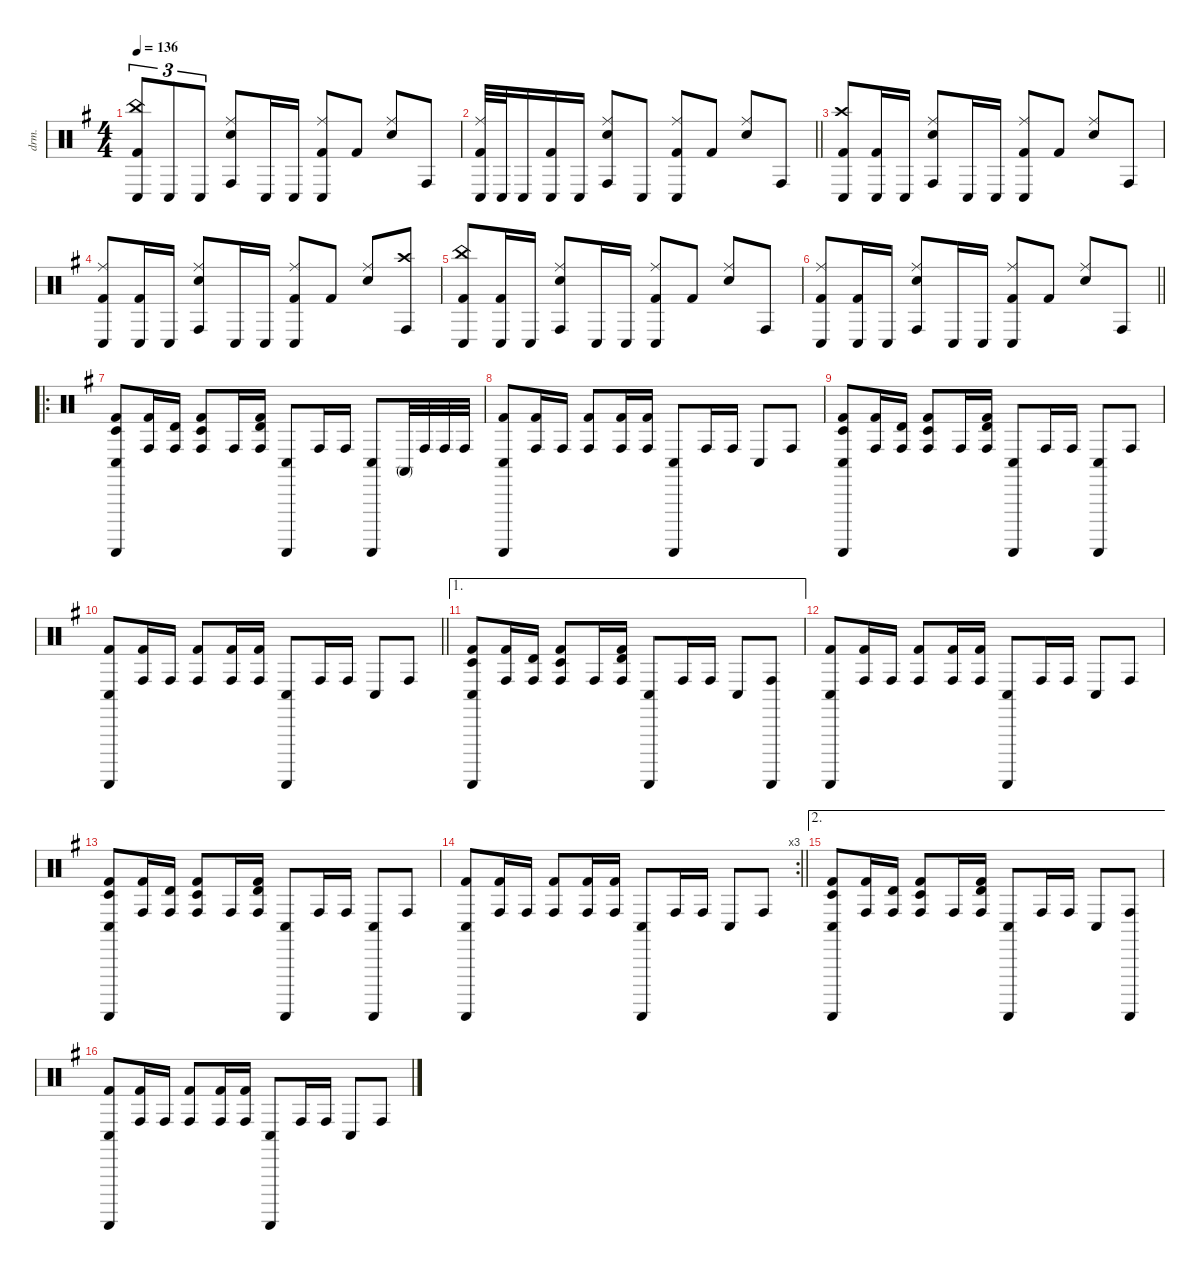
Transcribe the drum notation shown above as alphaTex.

\defaultSystemsLayout 4
\hideDynamics
\bracketExtendMode nobrackets
\otherSystemsTrackNameOrientation horizontal
\track ("Batterie" "drm.") {instrument percussion}
\staff {score}
\articulation defaults
\ts (4 4)
\tempo 136
\clef neutral
\ks g
("China (hit)"{acc forcenatural} "Conga low (hit)"{acc forcenatural} "Kick (hit) 2"{acc forcenatural}).8{tu (3 2) dy f beam Up} "Conga low (hit)"{acc forcenatural}.8{tu (3 2) beam Up} "Conga low (hit)"{acc forcenatural}.8{tu (3 2) beam Up} ("Ride (middle)"{acc forcenatural} "Conga high (hit)"{acc forcenatural} "Snare (hit) 2"{acc forcenatural}).8{beam Up} "Conga low (hit)"{acc forcenatural}.16{beam Up} "Conga low (hit)"{acc forcenatural}.16{beam Up} ("Ride (middle)"{acc forcenatural} "Conga low (hit)"{acc forcenatural} "Kick (hit) 2"{acc forcenatural}).8{beam Up} "Kick (hit) 2"{acc forcenatural}.8{beam Up} ("Ride (middle)"{acc forcenatural} "Snare (hit) 2"{acc forcenatural}).8{beam Up} "Conga high (hit)"{acc forcenatural}.8{beam Up} |
\barLineRight lightlight
("Ride (middle)"{acc forcenatural} "Conga low (hit)"{acc forcenatural} "Kick (hit) 2"{acc forcenatural}).32{beam Up} "Conga low (hit)"{acc forcenatural}.32{beam Up} "Conga low (hit)"{acc forcenatural}.16{beam Up} ("Conga low (hit)"{acc forcenatural} "Kick (hit) 2"{acc forcenatural}).16{beam Up} "Conga low (hit)"{acc forcenatural}.16{beam Up} ("Ride (middle)"{acc forcenatural} "Conga high (hit)"{acc forcenatural} "Snare (hit) 2"{acc forcenatural}).8{beam Up} "Conga low (hit)"{acc forcenatural}.8{beam Up} ("Ride (middle)"{acc forcenatural} "Conga low (hit)"{acc forcenatural} "Kick (hit) 2"{acc forcenatural}).8{beam Up} "Kick (hit) 2"{acc forcenatural}.8{beam Up} ("Ride (middle)"{acc forcenatural} "Snare (hit) 2"{acc forcenatural}).8{beam Up} "Conga high (hit)"{acc forcenatural}.8{beam Up} |
("Crash high (hit)"{acc forcenatural} "Conga low (hit)"{acc forcenatural} "Kick (hit) 2"{acc forcenatural}).8{beam Up} ("Conga low (hit)"{acc forcenatural} "Kick (hit) 2"{acc forcenatural}).16{beam Up} "Conga low (hit)"{acc forcenatural}.16{beam Up} ("Ride (middle)"{acc forcenatural} "Conga high (hit)"{acc forcenatural} "Snare (hit) 2"{acc forcenatural}).8{beam Up} "Conga low (hit)"{acc forcenatural}.16{beam Up} "Conga low (hit)"{acc forcenatural}.16{beam Up} ("Ride (middle)"{acc forcenatural} "Conga low (hit)"{acc forcenatural} "Kick (hit) 2"{acc forcenatural}).8{beam Up} "Kick (hit) 2"{acc forcenatural}.8{beam Up} ("Ride (middle)"{acc forcenatural} "Snare (hit) 2"{acc forcenatural}).8{beam Up} "Conga high (hit)"{acc forcenatural}.8{beam Up} |
("Ride (middle)"{acc forcenatural} "Conga low (hit)"{acc forcenatural} "Kick (hit) 2"{acc forcenatural}).8{beam Up} ("Conga low (hit)"{acc forcenatural} "Kick (hit) 2"{acc forcenatural}).16{beam Up} "Conga low (hit)"{acc forcenatural}.16{beam Up} ("Ride (middle)"{acc forcenatural} "Conga high (hit)"{acc forcenatural} "Snare (hit) 2"{acc forcenatural}).8{beam Up} "Conga low (hit)"{acc forcenatural}.16{beam Up} "Conga low (hit)"{acc forcenatural}.16{beam Up} ("Ride (middle)"{acc forcenatural} "Conga low (hit)"{acc forcenatural} "Kick (hit) 2"{acc forcenatural}).8{beam Up} "Kick (hit) 2"{acc forcenatural}.8{beam Up} ("Ride (middle)"{acc forcenatural} "Snare (hit) 2"{acc forcenatural}).8{beam Up} ("Crash high (hit)"{acc forcenatural} "Conga high (hit)"{acc forcenatural}).8{beam Up} |
("China (hit)"{acc forcenatural} "Conga low (hit)"{acc forcenatural} "Kick (hit) 2"{acc forcenatural}).8{beam Up} ("Conga low (hit)"{acc forcenatural} "Kick (hit) 2"{acc forcenatural}).16{beam Up} "Conga low (hit)"{acc forcenatural}.16{beam Up} ("Ride (middle)"{acc forcenatural} "Conga high (hit)"{acc forcenatural} "Snare (hit) 2"{acc forcenatural}).8{beam Up} "Conga low (hit)"{acc forcenatural}.16{beam Up} "Conga low (hit)"{acc forcenatural}.16{beam Up} ("Ride (middle)"{acc forcenatural} "Conga low (hit)"{acc forcenatural} "Kick (hit) 2"{acc forcenatural}).8{beam Up} "Kick (hit) 2"{acc forcenatural}.8{beam Up} ("Ride (middle)"{acc forcenatural} "Snare (hit) 2"{acc forcenatural}).8{beam Up} "Conga high (hit)"{acc forcenatural}.8{beam Up} |
\barLineRight lightlight
("Ride (middle)"{acc forcenatural} "Conga low (hit)"{acc forcenatural} "Kick (hit) 2"{acc forcenatural}).8{beam Up} ("Conga low (hit)"{acc forcenatural} "Kick (hit) 2"{acc forcenatural}).16{beam Up} "Conga low (hit)"{acc forcenatural}.16{beam Up} ("Ride (middle)"{acc forcenatural} "Conga high (hit)"{acc forcenatural} "Snare (hit) 2"{acc forcenatural}).8{beam Up} "Conga low (hit)"{acc forcenatural}.16{beam Up} "Conga low (hit)"{acc forcenatural}.16{beam Up} ("Ride (middle)"{acc forcenatural} "Conga low (hit)"{acc forcenatural} "Kick (hit) 2"{acc forcenatural}).8{beam Up} "Kick (hit) 2"{acc forcenatural}.8{beam Up} ("Ride (middle)"{acc forcenatural} "Snare (hit) 2"{acc forcenatural}).8{beam Up} "Conga high (hit)"{acc forcenatural}.8{beam Up} |
\ro
("Conga low (hit)"{acc forcenatural} "Timbale low (hit)"{acc forcenatural} "Guiro (scrap-return)"{acc forcenatural} "Kick (hit) 2"{acc forcenatural}).8{beam Up} ("Conga high (hit)"{acc forcenatural} "Kick (hit) 2"{acc forcenatural}).16{beam Up} ("Conga high (hit)"{acc forcenatural} "Timbale high (hit)"{acc forcenatural}).16{beam Up} ("Conga high (hit)"{acc forcenatural} "Timbale low (hit)"{acc forcenatural} "Kick (hit) 2"{acc forcenatural}).8{beam Up} "Conga high (hit)"{acc forcenatural}.16{beam Up} ("Conga high (hit)"{acc forcenatural} "Timbale high (hit)"{acc forcenatural} "Kick (hit) 2"{acc forcenatural}).16{beam Up} ("Conga low (hit)"{acc forcenatural} "Guiro (scrap-return)"{acc forcenatural}).8{beam Up} "Conga high (hit)"{acc forcenatural}.16{beam Up} "Conga high (hit)"{acc forcenatural}.16{beam Up} ("Conga low (hit)"{acc forcenatural} "Guiro (scrap-return)"{acc forcenatural}).8{beam Up} "Conga high (mute)"{acc forcenatural}.32{beam Up} "Conga high (hit)"{acc forcenatural}.32{beam Up} "Conga high (hit)"{acc forcenatural}.32{beam Up} "Conga high (hit)"{acc forcenatural}.32{beam Up} |
("Conga low (hit)"{acc forcenatural} "Guiro (scrap-return)"{acc forcenatural} "Kick (hit) 2"{acc forcenatural}).8{beam Up} ("Conga high (hit)"{acc forcenatural} "Kick (hit) 2"{acc forcenatural}).16{beam Up} "Conga high (hit)"{acc forcenatural}.16{beam Up} ("Conga high (hit)"{acc forcenatural} "Kick (hit) 2"{acc forcenatural}).8{beam Up} ("Conga high (hit)"{acc forcenatural} "Kick (hit) 2"{acc forcenatural}).16{beam Up} ("Conga high (hit)"{acc forcenatural} "Kick (hit) 2"{acc forcenatural}).16{beam Up} ("Conga low (hit)"{acc forcenatural} "Guiro (scrap-return)"{acc forcenatural}).8{beam Up} "Conga high (hit)"{acc forcenatural}.16{beam Up} "Conga high (hit)"{acc forcenatural}.16{beam Up} "Conga low (hit)"{acc forcenatural}.8{beam Up} "Conga high (hit)"{acc forcenatural}.8{beam Up} |
("Conga low (hit)"{acc forcenatural} "Timbale low (hit)"{acc forcenatural} "Guiro (scrap-return)"{acc forcenatural} "Kick (hit) 2"{acc forcenatural}).8{beam Up} ("Conga high (hit)"{acc forcenatural} "Kick (hit) 2"{acc forcenatural}).16{beam Up} ("Conga high (hit)"{acc forcenatural} "Timbale high (hit)"{acc forcenatural}).16{beam Up} ("Conga high (hit)"{acc forcenatural} "Timbale low (hit)"{acc forcenatural} "Kick (hit) 2"{acc forcenatural}).8{beam Up} "Conga high (hit)"{acc forcenatural}.16{beam Up} ("Conga high (hit)"{acc forcenatural} "Timbale high (hit)"{acc forcenatural} "Kick (hit) 2"{acc forcenatural}).16{beam Up} ("Conga low (hit)"{acc forcenatural} "Guiro (scrap-return)"{acc forcenatural}).8{beam Up} "Conga high (hit)"{acc forcenatural}.16{beam Up} "Conga high (hit)"{acc forcenatural}.16{beam Up} ("Conga low (hit)"{acc forcenatural} "Guiro (scrap-return)"{acc forcenatural}).8{beam Up} "Conga high (hit)"{acc forcenatural}.8{beam Up} |
\barLineRight lightlight
("Conga low (hit)"{acc forcenatural} "Guiro (scrap-return)"{acc forcenatural} "Kick (hit) 2"{acc forcenatural}).8{beam Up} ("Conga high (hit)"{acc forcenatural} "Kick (hit) 2"{acc forcenatural}).16{beam Up} "Conga high (hit)"{acc forcenatural}.16{beam Up} ("Conga high (hit)"{acc forcenatural} "Kick (hit) 2"{acc forcenatural}).8{beam Up} ("Conga high (hit)"{acc forcenatural} "Kick (hit) 2"{acc forcenatural}).16{beam Up} ("Conga high (hit)"{acc forcenatural} "Kick (hit) 2"{acc forcenatural}).16{beam Up} ("Conga low (hit)"{acc forcenatural} "Guiro (scrap-return)"{acc forcenatural}).8{beam Up} "Conga high (hit)"{acc forcenatural}.16{beam Up} "Conga high (hit)"{acc forcenatural}.16{beam Up} "Conga low (hit)"{acc forcenatural}.8{beam Up} "Conga high (hit)"{acc forcenatural}.8{beam Up} |
\ae 1
("Conga low (hit)"{acc forcenatural} "Timbale low (hit)"{acc forcenatural} "Guiro (scrap-return)"{acc forcenatural} "Kick (hit) 2"{acc forcenatural}).8{beam Up} ("Conga high (hit)"{acc forcenatural} "Kick (hit) 2"{acc forcenatural}).16{beam Up} ("Conga high (hit)"{acc forcenatural} "Timbale high (hit)"{acc forcenatural}).16{beam Up} ("Conga high (hit)"{acc forcenatural} "Timbale low (hit)"{acc forcenatural} "Kick (hit) 2"{acc forcenatural}).8{beam Up} "Conga high (hit)"{acc forcenatural}.16{beam Up} ("Conga high (hit)"{acc forcenatural} "Timbale high (hit)"{acc forcenatural} "Kick (hit) 2"{acc forcenatural}).16{beam Up} ("Conga low (hit)"{acc forcenatural} "Guiro (scrap-return)"{acc forcenatural}).8{beam Up} "Conga high (hit)"{acc forcenatural}.16{beam Up} "Conga high (hit)"{acc forcenatural}.16{beam Up} "Conga low (hit)"{acc forcenatural}.8{beam Up} ("Conga high (hit)"{acc forcenatural} "Guiro (scrap-return)"{acc forcenatural}).8{beam Up} |
("Conga low (hit)"{acc forcenatural} "Guiro (scrap-return)"{acc forcenatural} "Kick (hit) 2"{acc forcenatural}).8{beam Up} ("Conga high (hit)"{acc forcenatural} "Kick (hit) 2"{acc forcenatural}).16{beam Up} "Conga high (hit)"{acc forcenatural}.16{beam Up} ("Conga high (hit)"{acc forcenatural} "Kick (hit) 2"{acc forcenatural}).8{beam Up} ("Conga high (hit)"{acc forcenatural} "Kick (hit) 2"{acc forcenatural}).16{beam Up} ("Conga high (hit)"{acc forcenatural} "Kick (hit) 2"{acc forcenatural}).16{beam Up} ("Conga low (hit)"{acc forcenatural} "Guiro (scrap-return)"{acc forcenatural}).8{beam Up} "Conga high (hit)"{acc forcenatural}.16{beam Up} "Conga high (hit)"{acc forcenatural}.16{beam Up} "Conga low (hit)"{acc forcenatural}.8{beam Up} "Conga high (hit)"{acc forcenatural}.8{beam Up} |
("Conga low (hit)"{acc forcenatural} "Timbale low (hit)"{acc forcenatural} "Guiro (scrap-return)"{acc forcenatural} "Kick (hit) 2"{acc forcenatural}).8{beam Up} ("Conga high (hit)"{acc forcenatural} "Kick (hit) 2"{acc forcenatural}).16{beam Up} ("Conga high (hit)"{acc forcenatural} "Timbale high (hit)"{acc forcenatural}).16{beam Up} ("Conga high (hit)"{acc forcenatural} "Timbale low (hit)"{acc forcenatural} "Kick (hit) 2"{acc forcenatural}).8{beam Up} "Conga high (hit)"{acc forcenatural}.16{beam Up} ("Conga high (hit)"{acc forcenatural} "Timbale high (hit)"{acc forcenatural} "Kick (hit) 2"{acc forcenatural}).16{beam Up} ("Conga low (hit)"{acc forcenatural} "Guiro (scrap-return)"{acc forcenatural}).8{beam Up} "Conga high (hit)"{acc forcenatural}.16{beam Up} "Conga high (hit)"{acc forcenatural}.16{beam Up} ("Conga low (hit)"{acc forcenatural} "Guiro (scrap-return)"{acc forcenatural}).8{beam Up} "Conga high (hit)"{acc forcenatural}.8{beam Up} |
\rc 3
\barLineRight lightlight
("Conga low (hit)"{acc forcenatural} "Guiro (scrap-return)"{acc forcenatural} "Kick (hit) 2"{acc forcenatural}).8{beam Up} ("Conga high (hit)"{acc forcenatural} "Kick (hit) 2"{acc forcenatural}).16{beam Up} "Conga high (hit)"{acc forcenatural}.16{beam Up} ("Conga high (hit)"{acc forcenatural} "Kick (hit) 2"{acc forcenatural}).8{beam Up} ("Conga high (hit)"{acc forcenatural} "Kick (hit) 2"{acc forcenatural}).16{beam Up} ("Conga high (hit)"{acc forcenatural} "Kick (hit) 2"{acc forcenatural}).16{beam Up} ("Conga low (hit)"{acc forcenatural} "Guiro (scrap-return)"{acc forcenatural}).8{beam Up} "Conga high (hit)"{acc forcenatural}.16{beam Up} "Conga high (hit)"{acc forcenatural}.16{beam Up} "Conga low (hit)"{acc forcenatural}.8{beam Up} "Conga high (hit)"{acc forcenatural}.8{beam Up} |
\ae 2
("Conga low (hit)"{acc forcenatural} "Timbale low (hit)"{acc forcenatural} "Guiro (scrap-return)"{acc forcenatural} "Kick (hit) 2"{acc forcenatural}).8{beam Up} ("Conga high (hit)"{acc forcenatural} "Kick (hit) 2"{acc forcenatural}).16{beam Up} ("Conga high (hit)"{acc forcenatural} "Timbale high (hit)"{acc forcenatural}).16{beam Up} ("Conga high (hit)"{acc forcenatural} "Timbale low (hit)"{acc forcenatural} "Kick (hit) 2"{acc forcenatural}).8{beam Up} "Conga high (hit)"{acc forcenatural}.16{beam Up} ("Conga high (hit)"{acc forcenatural} "Timbale high (hit)"{acc forcenatural} "Kick (hit) 2"{acc forcenatural}).16{beam Up} ("Conga low (hit)"{acc forcenatural} "Guiro (scrap-return)"{acc forcenatural}).8{beam Up} "Conga high (hit)"{acc forcenatural}.16{beam Up} "Conga high (hit)"{acc forcenatural}.16{beam Up} "Conga low (hit)"{acc forcenatural}.8{beam Up} ("Conga high (hit)"{acc forcenatural} "Guiro (scrap-return)"{acc forcenatural}).8{beam Up} |
("Conga low (hit)"{acc forcenatural} "Guiro (scrap-return)"{acc forcenatural} "Kick (hit) 2"{acc forcenatural}).8{beam Up} ("Conga high (hit)"{acc forcenatural} "Kick (hit) 2"{acc forcenatural}).16{beam Up} "Conga high (hit)"{acc forcenatural}.16{beam Up} ("Conga high (hit)"{acc forcenatural} "Kick (hit) 2"{acc forcenatural}).8{beam Up} ("Conga high (hit)"{acc forcenatural} "Kick (hit) 2"{acc forcenatural}).16{beam Up} ("Conga high (hit)"{acc forcenatural} "Kick (hit) 2"{acc forcenatural}).16{beam Up} ("Conga low (hit)"{acc forcenatural} "Guiro (scrap-return)"{acc forcenatural}).8{beam Up} "Conga high (hit)"{acc forcenatural}.16{beam Up} "Conga high (hit)"{acc forcenatural}.16{beam Up} "Conga low (hit)"{acc forcenatural}.8{beam Up} "Conga high (hit)"{acc forcenatural}.8{beam Up}
